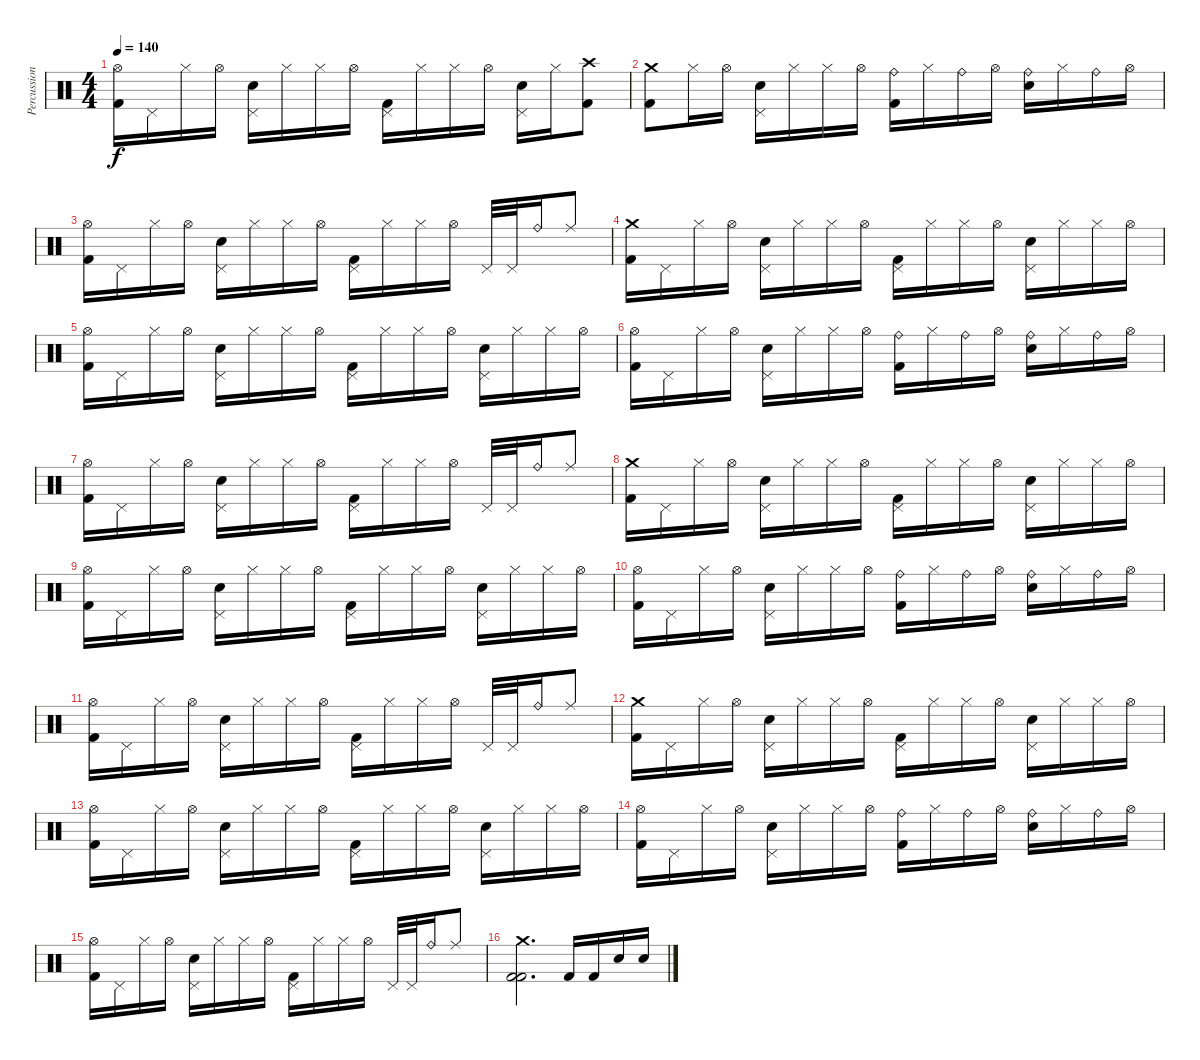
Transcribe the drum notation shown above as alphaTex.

\track ("Percussion" "Percussion") {instrument percussion}
\staff {score}
\articulation defaults
\ts (4 4)
\tempo 140
\clef neutral
\ks c
("Hi-Hat (open)" "Kick (hit) 2").16{dy f} "Pedal Hi-Hat (hit)".16 "Hi-Hat (closed)".16 "Hi-Hat (open)".16 ("Pedal Hi-Hat (hit)" "Electric Snare (hit)").16 "Hi-Hat (closed)".16 "Hi-Hat (closed)".16 "Hi-Hat (open)".16 ("Pedal Hi-Hat (hit)" "Kick (hit) 2").16 "Hi-Hat (closed)".16 "Hi-Hat (closed)".16 "Hi-Hat (open)".16 ("Pedal Hi-Hat (hit)" "Electric Snare (hit)").16 "Hi-Hat (closed)".16 ("Crash high (hit)" "Kick (hit) 2").8 |
("Crash medium (hit)" "Kick (hit) 2").8 "Hi-Hat (closed)".16 "Hi-Hat (open)".16 ("Pedal Hi-Hat (hit)" "Electric Snare (hit)").16 "Hi-Hat (closed)".16 "Hi-Hat (closed)".16 "Hi-Hat (open)".16 ("Ride (bell)" "Kick (hit) 2").16 "Hi-Hat (closed)".16 "Ride (bell)".16 "Hi-Hat (open)".16 ("Ride (bell)" "Electric Snare (hit)").16 "Hi-Hat (closed)".16 "Ride (bell)".16 "Hi-Hat (open)".16 |
("Hi-Hat (open)" "Kick (hit) 2").16 "Pedal Hi-Hat (hit)".16 "Hi-Hat (closed)".16 "Hi-Hat (open)".16 ("Pedal Hi-Hat (hit)" "Electric Snare (hit)").16 "Hi-Hat (closed)".16 "Hi-Hat (closed)".16 "Hi-Hat (open)".16 ("Pedal Hi-Hat (hit)" "Kick (hit) 2").16 "Hi-Hat (closed)".16 "Hi-Hat (closed)".16 "Hi-Hat (open)".16 "Pedal Hi-Hat (hit)".32 "Pedal Hi-Hat (hit)".32 "Ride (bell)".16 "Ride (middle)".8 |
("Crash medium (hit)" "Kick (hit) 2").16 "Pedal Hi-Hat (hit)".16 "Hi-Hat (closed)".16 "Hi-Hat (open)".16 ("Pedal Hi-Hat (hit)" "Electric Snare (hit)").16 "Hi-Hat (closed)".16 "Hi-Hat (closed)".16 "Hi-Hat (open)".16 ("Pedal Hi-Hat (hit)" "Kick (hit) 2").16 "Hi-Hat (closed)".16 "Hi-Hat (closed)".16 "Hi-Hat (open)".16 ("Pedal Hi-Hat (hit)" "Electric Snare (hit)").16 "Hi-Hat (closed)".16 "Hi-Hat (closed)".16 "Hi-Hat (open)".16 |
("Hi-Hat (open)" "Kick (hit) 2").16 "Pedal Hi-Hat (hit)".16 "Hi-Hat (closed)".16 "Hi-Hat (open)".16 ("Pedal Hi-Hat (hit)" "Electric Snare (hit)").16 "Hi-Hat (closed)".16 "Hi-Hat (closed)".16 "Hi-Hat (open)".16 ("Pedal Hi-Hat (hit)" "Kick (hit) 2").16 "Hi-Hat (closed)".16 "Hi-Hat (closed)".16 "Hi-Hat (open)".16 ("Pedal Hi-Hat (hit)" "Electric Snare (hit)").16 "Hi-Hat (closed)".16 "Hi-Hat (closed)".16 "Hi-Hat (open)".16 |
("Hi-Hat (open)" "Kick (hit) 2").16 "Pedal Hi-Hat (hit)".16 "Hi-Hat (closed)".16 "Hi-Hat (open)".16 ("Pedal Hi-Hat (hit)" "Electric Snare (hit)").16 "Hi-Hat (closed)".16 "Hi-Hat (closed)".16 "Hi-Hat (open)".16 ("Ride (bell)" "Kick (hit) 2").16 "Hi-Hat (closed)".16 "Ride (bell)".16 "Hi-Hat (open)".16 ("Ride (bell)" "Electric Snare (hit)").16 "Hi-Hat (closed)".16 "Ride (bell)".16 "Hi-Hat (open)".16 |
("Hi-Hat (open)" "Kick (hit) 2").16 "Pedal Hi-Hat (hit)".16 "Hi-Hat (closed)".16 "Hi-Hat (open)".16 ("Pedal Hi-Hat (hit)" "Electric Snare (hit)").16 "Hi-Hat (closed)".16 "Hi-Hat (closed)".16 "Hi-Hat (open)".16 ("Pedal Hi-Hat (hit)" "Kick (hit) 2").16 "Hi-Hat (closed)".16 "Hi-Hat (closed)".16 "Hi-Hat (open)".16 "Pedal Hi-Hat (hit)".32 "Pedal Hi-Hat (hit)".32 "Ride (bell)".16 "Ride (middle)".8 |
("Crash medium (hit)" "Kick (hit) 2").16 "Pedal Hi-Hat (hit)".16 "Hi-Hat (closed)".16 "Hi-Hat (open)".16 ("Pedal Hi-Hat (hit)" "Electric Snare (hit)").16 "Hi-Hat (closed)".16 "Hi-Hat (closed)".16 "Hi-Hat (open)".16 ("Pedal Hi-Hat (hit)" "Kick (hit) 2").16 "Hi-Hat (closed)".16 "Hi-Hat (closed)".16 "Hi-Hat (open)".16 ("Pedal Hi-Hat (hit)" "Electric Snare (hit)").16 "Hi-Hat (closed)".16 "Hi-Hat (closed)".16 "Hi-Hat (open)".16 |
("Hi-Hat (open)" "Kick (hit) 2").16 "Pedal Hi-Hat (hit)".16 "Hi-Hat (closed)".16 "Hi-Hat (open)".16 ("Pedal Hi-Hat (hit)" "Electric Snare (hit)").16 "Hi-Hat (closed)".16 "Hi-Hat (closed)".16 "Hi-Hat (open)".16 ("Pedal Hi-Hat (hit)" "Kick (hit) 2").16 "Hi-Hat (closed)".16 "Hi-Hat (closed)".16 "Hi-Hat (open)".16 ("Pedal Hi-Hat (hit)" "Electric Snare (hit)").16 "Hi-Hat (closed)".16 "Hi-Hat (closed)".16 "Hi-Hat (open)".16 |
("Hi-Hat (open)" "Kick (hit) 2").16 "Pedal Hi-Hat (hit)".16 "Hi-Hat (closed)".16 "Hi-Hat (open)".16 ("Pedal Hi-Hat (hit)" "Electric Snare (hit)").16 "Hi-Hat (closed)".16 "Hi-Hat (closed)".16 "Hi-Hat (open)".16 ("Ride (bell)" "Kick (hit) 2").16 "Hi-Hat (closed)".16 "Ride (bell)".16 "Hi-Hat (open)".16 ("Ride (bell)" "Electric Snare (hit)").16 "Hi-Hat (closed)".16 "Ride (bell)".16 "Hi-Hat (open)".16 |
("Hi-Hat (open)" "Kick (hit) 2").16 "Pedal Hi-Hat (hit)".16 "Hi-Hat (closed)".16 "Hi-Hat (open)".16 ("Pedal Hi-Hat (hit)" "Electric Snare (hit)").16 "Hi-Hat (closed)".16 "Hi-Hat (closed)".16 "Hi-Hat (open)".16 ("Pedal Hi-Hat (hit)" "Kick (hit) 2").16 "Hi-Hat (closed)".16 "Hi-Hat (closed)".16 "Hi-Hat (open)".16 "Pedal Hi-Hat (hit)".32 "Pedal Hi-Hat (hit)".32 "Ride (bell)".16 "Ride (middle)".8 |
("Crash medium (hit)" "Kick (hit) 2").16 "Pedal Hi-Hat (hit)".16 "Hi-Hat (closed)".16 "Hi-Hat (open)".16 ("Pedal Hi-Hat (hit)" "Electric Snare (hit)").16 "Hi-Hat (closed)".16 "Hi-Hat (closed)".16 "Hi-Hat (open)".16 ("Pedal Hi-Hat (hit)" "Kick (hit) 2").16 "Hi-Hat (closed)".16 "Hi-Hat (closed)".16 "Hi-Hat (open)".16 ("Pedal Hi-Hat (hit)" "Electric Snare (hit)").16 "Hi-Hat (closed)".16 "Hi-Hat (closed)".16 "Hi-Hat (open)".16 |
("Hi-Hat (open)" "Kick (hit) 2").16 "Pedal Hi-Hat (hit)".16 "Hi-Hat (closed)".16 "Hi-Hat (open)".16 ("Pedal Hi-Hat (hit)" "Electric Snare (hit)").16 "Hi-Hat (closed)".16 "Hi-Hat (closed)".16 "Hi-Hat (open)".16 ("Pedal Hi-Hat (hit)" "Kick (hit) 2").16 "Hi-Hat (closed)".16 "Hi-Hat (closed)".16 "Hi-Hat (open)".16 ("Pedal Hi-Hat (hit)" "Electric Snare (hit)").16 "Hi-Hat (closed)".16 "Hi-Hat (closed)".16 "Hi-Hat (open)".16 |
("Hi-Hat (open)" "Kick (hit) 2").16 "Pedal Hi-Hat (hit)".16 "Hi-Hat (closed)".16 "Hi-Hat (open)".16 ("Pedal Hi-Hat (hit)" "Electric Snare (hit)").16 "Hi-Hat (closed)".16 "Hi-Hat (closed)".16 "Hi-Hat (open)".16 ("Ride (bell)" "Kick (hit) 2").16 "Hi-Hat (closed)".16 "Ride (bell)".16 "Hi-Hat (open)".16 ("Ride (bell)" "Electric Snare (hit)").16 "Hi-Hat (closed)".16 "Ride (bell)".16 "Hi-Hat (open)".16 |
("Hi-Hat (open)" "Kick (hit) 2").16 "Pedal Hi-Hat (hit)".16 "Hi-Hat (closed)".16 "Hi-Hat (open)".16 ("Pedal Hi-Hat (hit)" "Electric Snare (hit)").16 "Hi-Hat (closed)".16 "Hi-Hat (closed)".16 "Hi-Hat (open)".16 ("Pedal Hi-Hat (hit)" "Kick (hit) 2").16 "Hi-Hat (closed)".16 "Hi-Hat (closed)".16 "Hi-Hat (open)".16 "Pedal Hi-Hat (hit)".32 "Pedal Hi-Hat (hit)".32 "Ride (bell)".16 "Ride (middle)".8 |
("Crash medium (hit)" "Kick (hit) 2" "Kick (hit) 2").2{d} "Kick (hit) 2".16 "Kick (hit) 2".16 "Electric Snare (hit)".16 "Electric Snare (hit)".16
